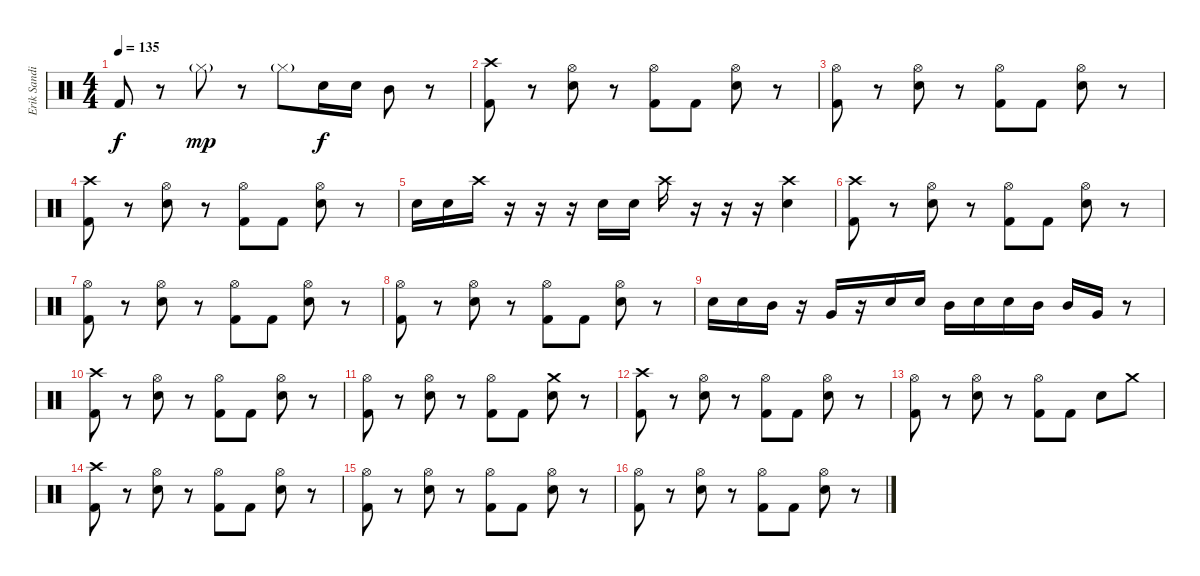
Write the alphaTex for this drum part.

\track ("Erik Sandin" "Erik Sandi") {instrument percussion}
\staff {score}
\articulation defaults
\ts (4 4)
\tempo 135
\clef neutral
\ks c "Kick (hit) 2".8{dy f}
r.8 "Hi-Hat (closed)"{g}.8{dy mp} r.8 "Hi-Hat (closed)"{g}.8 "Snare (hit) 2".16{dy f} "Snare (hit) 2".16 "Mid Tom (hit)".8 r.8 |
("Crash high (hit)" "Kick (hit) 2").8 r.8 ("Hi-Hat (open)" "Snare (hit) 2").8 r.8 ("Hi-Hat (open)" "Kick (hit) 2").8 "Kick (hit) 2".8 ("Hi-Hat (open)" "Snare (hit) 2").8 r.8 |
("Hi-Hat (open)" "Kick (hit) 2").8 r.8 ("Hi-Hat (open)" "Snare (hit) 2").8 r.8 ("Hi-Hat (open)" "Kick (hit) 2").8 "Kick (hit) 2".8 ("Hi-Hat (open)" "Snare (hit) 2").8 r.8 |
("Crash high (hit)" "Kick (hit) 2").8 r.8 ("Hi-Hat (open)" "Snare (hit) 2").8 r.8 ("Hi-Hat (open)" "Kick (hit) 2").8 "Kick (hit) 2".8 ("Hi-Hat (open)" "Snare (hit) 2").8 r.8 |
"Snare (hit) 2".16 "Snare (hit) 2".16 "Crash high (hit)".16 r.16 r.16 r.16 "Snare (hit) 2".16 "Snare (hit) 2".16 "Crash high (hit)".16 r.16 r.16 r.16 ("Crash high (hit)" "Snare (hit) 2").4 |
("Crash high (hit)" "Kick (hit) 2").8 r.8 ("Hi-Hat (open)" "Snare (hit) 2").8 r.8 ("Hi-Hat (open)" "Kick (hit) 2").8 "Kick (hit) 2".8 ("Hi-Hat (open)" "Snare (hit) 2").8 r.8 |
("Hi-Hat (open)" "Kick (hit) 2").8 r.8 ("Hi-Hat (open)" "Snare (hit) 2").8 r.8 ("Hi-Hat (open)" "Kick (hit) 2").8 "Kick (hit) 2".8 ("Hi-Hat (open)" "Snare (hit) 2").8 r.8 |
("Hi-Hat (open)" "Kick (hit) 2").8 r.8 ("Hi-Hat (open)" "Snare (hit) 2").8 r.8 ("Hi-Hat (open)" "Kick (hit) 2").8 "Kick (hit) 2".8 ("Hi-Hat (open)" "Snare (hit) 2").8 r.8 |
"Snare (hit) 2".16 "Snare (hit) 2".16 "Mid Tom (hit)".16 r.16 "Very Low Tom (hit)".16 r.16 "Snare (hit) 2".16 "Snare (hit) 2".16 "Mid Tom (hit)".16 "Snare (hit) 2".16 "Snare (hit) 2".16 "Mid Tom (hit)".16 "Mid Tom (hit)".16 "Very Low Tom (hit)".16 r.8 |
("Crash high (hit)" "Kick (hit) 2").8 r.8 ("Hi-Hat (open)" "Snare (hit) 2").8 r.8 ("Hi-Hat (open)" "Kick (hit) 2").8 "Kick (hit) 2".8 ("Hi-Hat (open)" "Snare (hit) 2").8 r.8 |
("Hi-Hat (open)" "Kick (hit) 2").8 r.8 ("Hi-Hat (open)" "Snare (hit) 2").8 r.8 ("Hi-Hat (open)" "Kick (hit) 2").8 "Kick (hit) 2".8 ("Crash medium (hit)" "Snare (hit) 2").8 r.8 |
("Crash high (hit)" "Kick (hit) 2").8 r.8 ("Hi-Hat (open)" "Snare (hit) 2").8 r.8 ("Hi-Hat (open)" "Kick (hit) 2").8 "Kick (hit) 2".8 ("Hi-Hat (open)" "Snare (hit) 2").8 r.8 |
("Hi-Hat (open)" "Kick (hit) 2").8 r.8 ("Hi-Hat (open)" "Snare (hit) 2").8 r.8 ("Hi-Hat (open)" "Kick (hit) 2").8 "Kick (hit) 2".8 "Snare (hit) 2".8 "Crash medium (hit)".8 |
("Crash high (hit)" "Kick (hit) 2").8 r.8 ("Hi-Hat (open)" "Snare (hit) 2").8 r.8 ("Hi-Hat (open)" "Kick (hit) 2").8 "Kick (hit) 2".8 ("Hi-Hat (open)" "Snare (hit) 2").8 r.8 |
("Hi-Hat (open)" "Kick (hit) 2").8 r.8 ("Hi-Hat (open)" "Snare (hit) 2").8 r.8 ("Hi-Hat (open)" "Kick (hit) 2").8 "Kick (hit) 2".8 ("Hi-Hat (open)" "Snare (hit) 2").8 r.8 |
("Hi-Hat (open)" "Kick (hit) 2").8 r.8 ("Hi-Hat (open)" "Snare (hit) 2").8 r.8 ("Hi-Hat (open)" "Kick (hit) 2").8 "Kick (hit) 2".8 ("Hi-Hat (open)" "Snare (hit) 2").8 r.8
